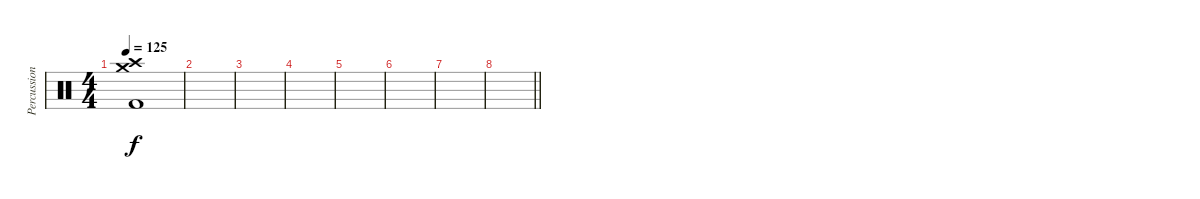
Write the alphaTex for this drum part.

\track ("Percussion" "Percussion") {instrument percussion}
\staff {score}
\articulation defaults
\ts (4 4)
\tempo 125
\clef neutral
\ks c
("Crash medium (hit)" "Crash high (hit)" "Kick (hit) 2").1{dy f} |
|
|
|
|
|
|
\barLineRight lightlight
